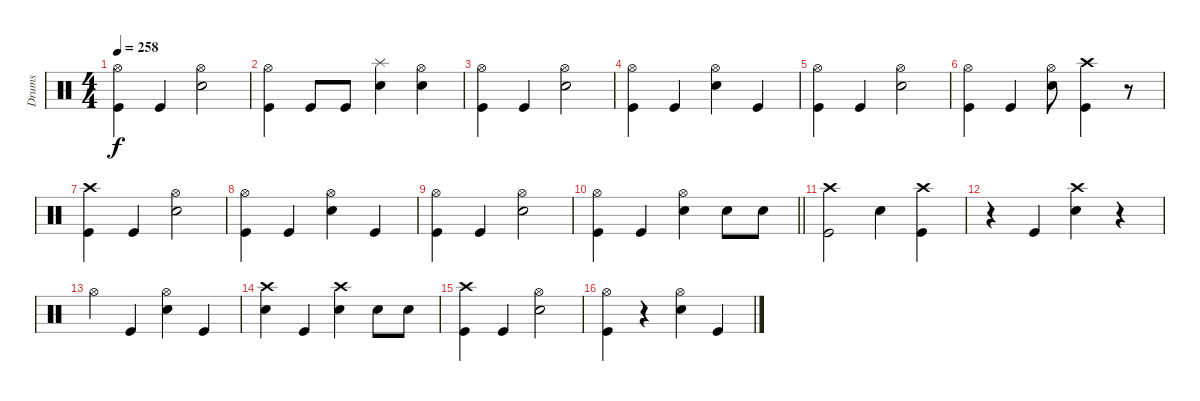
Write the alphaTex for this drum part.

\track ("Drums" "Drums") {instrument percussion}
\staff {score}
\articulation defaults
\ts (4 4)
\tempo 258
\clef neutral
\ks c
("Hi-Hat (open)" "Kick (hit)").4{dy f} "Kick (hit)".4 ("Hi-Hat (open)" "Electric Snare (hit)").2 |
("Hi-Hat (open)" "Kick (hit)").4 "Kick (hit)".8 "Kick (hit)".8 ("Splash (hit)" "Electric Snare (hit)").4 ("Hi-Hat (open)" "Electric Snare (hit)").4 |
("Hi-Hat (open)" "Kick (hit)").4 "Kick (hit)".4 ("Hi-Hat (open)" "Electric Snare (hit)").2 |
("Hi-Hat (open)" "Kick (hit)").4 "Kick (hit)".4 ("Hi-Hat (open)" "Electric Snare (hit)").4 "Kick (hit)".4 |
("Hi-Hat (open)" "Kick (hit)").4 "Kick (hit)".4 ("Hi-Hat (open)" "Electric Snare (hit)").2 |
("Hi-Hat (open)" "Kick (hit)").4 "Kick (hit)".4 ("Hi-Hat (open)" "Electric Snare (hit)").8 ("Crash high (hit)" "Kick (hit)").4 r.8 |
("Crash high (hit)" "Kick (hit)").4 "Kick (hit)".4 ("Hi-Hat (open)" "Electric Snare (hit)").2 |
("Hi-Hat (open)" "Kick (hit)").4 "Kick (hit)".4 ("Hi-Hat (open)" "Electric Snare (hit)").4 "Kick (hit)".4 |
("Hi-Hat (open)" "Kick (hit)").4 "Kick (hit)".4 ("Hi-Hat (open)" "Electric Snare (hit)").2 |
\barLineRight lightlight
("Hi-Hat (open)" "Kick (hit)").4 "Kick (hit)".4 ("Hi-Hat (open)" "Electric Snare (hit)").4 "Electric Snare (hit)".8 "Electric Snare (hit)".8 |
\section ("" "")
("Crash high (hit)" "Kick (hit)").2 "Electric Snare (hit)".4 ("Crash high (hit)" "Kick (hit)").4 |
r.4 "Kick (hit)".4 ("Crash high (hit)" "Electric Snare (hit)").4 r.4 |
"Hi-Hat (open)".4 "Kick (hit)".4 ("Hi-Hat (open)" "Electric Snare (hit)").4 "Kick (hit)".4 |
("Crash high (hit)" "Electric Snare (hit)").4 "Kick (hit)".4 ("Crash high (hit)" "Electric Snare (hit)").4 "Electric Snare (hit)".8 "Electric Snare (hit)".8 |
("Crash high (hit)" "Kick (hit)").4 "Kick (hit)".4 ("Hi-Hat (open)" "Electric Snare (hit)").2 |
("Hi-Hat (open)" "Kick (hit)").4 r.4 ("Hi-Hat (open)" "Electric Snare (hit)").4 "Kick (hit)".4
